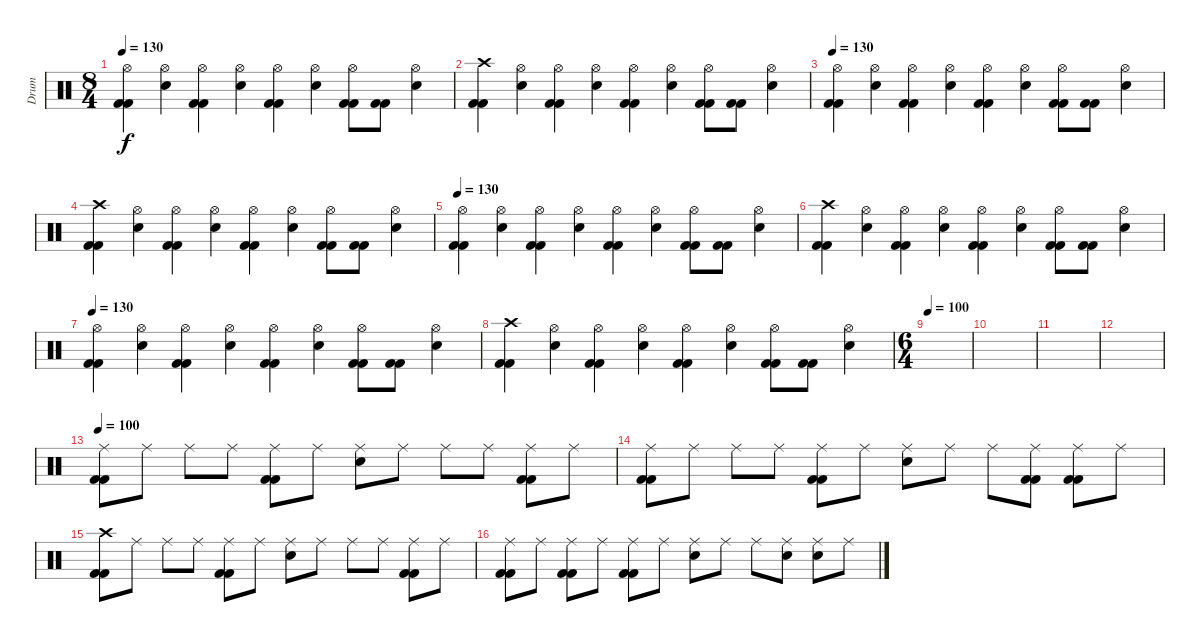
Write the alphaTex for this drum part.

\track ("Drum" "Drum") {instrument percussion}
\staff {score}
\articulation defaults
\ts (8 4)
\tempo 130
\clef neutral
\ks c
("Hi-Hat (open)" "Kick (hit) 2" "Kick (hit) 2").4{dy f} ("Hi-Hat (open)" "Electric Snare (hit)").4 ("Hi-Hat (open)" "Kick (hit) 2" "Kick (hit) 2").4 ("Hi-Hat (open)" "Electric Snare (hit)").4 ("Hi-Hat (open)" "Kick (hit) 2" "Kick (hit) 2").4 ("Hi-Hat (open)" "Electric Snare (hit)").4 ("Hi-Hat (open)" "Kick (hit) 2" "Kick (hit) 2").8 ("Kick (hit) 2" "Kick (hit) 2").8 ("Hi-Hat (open)" "Electric Snare (hit)").4 |
("Crash high (hit)" "Kick (hit) 2" "Kick (hit) 2").4 ("Hi-Hat (open)" "Electric Snare (hit)").4 ("Hi-Hat (open)" "Kick (hit) 2" "Kick (hit) 2").4 ("Hi-Hat (open)" "Electric Snare (hit)").4 ("Hi-Hat (open)" "Kick (hit) 2" "Kick (hit) 2").4 ("Hi-Hat (open)" "Electric Snare (hit)").4 ("Hi-Hat (open)" "Kick (hit) 2" "Kick (hit) 2").8 ("Kick (hit) 2" "Kick (hit) 2").8 ("Hi-Hat (open)" "Electric Snare (hit)").4 |
\tempo 130
("Hi-Hat (open)" "Kick (hit) 2" "Kick (hit) 2").4 ("Hi-Hat (open)" "Electric Snare (hit)").4 ("Hi-Hat (open)" "Kick (hit) 2" "Kick (hit) 2").4 ("Hi-Hat (open)" "Electric Snare (hit)").4 ("Hi-Hat (open)" "Kick (hit) 2" "Kick (hit) 2").4 ("Hi-Hat (open)" "Electric Snare (hit)").4 ("Hi-Hat (open)" "Kick (hit) 2" "Kick (hit) 2").8 ("Kick (hit) 2" "Kick (hit) 2").8 ("Hi-Hat (open)" "Electric Snare (hit)").4 |
("Crash high (hit)" "Kick (hit) 2" "Kick (hit) 2").4 ("Hi-Hat (open)" "Electric Snare (hit)").4 ("Hi-Hat (open)" "Kick (hit) 2" "Kick (hit) 2").4 ("Hi-Hat (open)" "Electric Snare (hit)").4 ("Hi-Hat (open)" "Kick (hit) 2" "Kick (hit) 2").4 ("Hi-Hat (open)" "Electric Snare (hit)").4 ("Hi-Hat (open)" "Kick (hit) 2" "Kick (hit) 2").8 ("Kick (hit) 2" "Kick (hit) 2").8 ("Hi-Hat (open)" "Electric Snare (hit)").4 |
\tempo 130
("Hi-Hat (open)" "Kick (hit) 2" "Kick (hit) 2").4 ("Hi-Hat (open)" "Electric Snare (hit)").4 ("Hi-Hat (open)" "Kick (hit) 2" "Kick (hit) 2").4 ("Hi-Hat (open)" "Electric Snare (hit)").4 ("Hi-Hat (open)" "Kick (hit) 2" "Kick (hit) 2").4 ("Hi-Hat (open)" "Electric Snare (hit)").4 ("Hi-Hat (open)" "Kick (hit) 2" "Kick (hit) 2").8 ("Kick (hit) 2" "Kick (hit) 2").8 ("Hi-Hat (open)" "Electric Snare (hit)").4 |
("Crash high (hit)" "Kick (hit) 2" "Kick (hit) 2").4 ("Hi-Hat (open)" "Electric Snare (hit)").4 ("Hi-Hat (open)" "Kick (hit) 2" "Kick (hit) 2").4 ("Hi-Hat (open)" "Electric Snare (hit)").4 ("Hi-Hat (open)" "Kick (hit) 2" "Kick (hit) 2").4 ("Hi-Hat (open)" "Electric Snare (hit)").4 ("Hi-Hat (open)" "Kick (hit) 2" "Kick (hit) 2").8 ("Kick (hit) 2" "Kick (hit) 2").8 ("Hi-Hat (open)" "Electric Snare (hit)").4 |
\tempo 130
("Hi-Hat (open)" "Kick (hit) 2" "Kick (hit) 2").4 ("Hi-Hat (open)" "Electric Snare (hit)").4 ("Hi-Hat (open)" "Kick (hit) 2" "Kick (hit) 2").4 ("Hi-Hat (open)" "Electric Snare (hit)").4 ("Hi-Hat (open)" "Kick (hit) 2" "Kick (hit) 2").4 ("Hi-Hat (open)" "Electric Snare (hit)").4 ("Hi-Hat (open)" "Kick (hit) 2" "Kick (hit) 2").8 ("Kick (hit) 2" "Kick (hit) 2").8 ("Hi-Hat (open)" "Electric Snare (hit)").4 |
("Crash high (hit)" "Kick (hit) 2" "Kick (hit) 2").4 ("Hi-Hat (open)" "Electric Snare (hit)").4 ("Hi-Hat (open)" "Kick (hit) 2" "Kick (hit) 2").4 ("Hi-Hat (open)" "Electric Snare (hit)").4 ("Hi-Hat (open)" "Kick (hit) 2" "Kick (hit) 2").4 ("Hi-Hat (open)" "Electric Snare (hit)").4 ("Hi-Hat (open)" "Kick (hit) 2" "Kick (hit) 2").8 ("Kick (hit) 2" "Kick (hit) 2").8 ("Hi-Hat (open)" "Electric Snare (hit)").4 |
\ts (6 4)
\tempo 100
|
|
|
|
\tempo 100
("Ride (middle)" "Kick (hit) 2" "Kick (hit) 2").8 "Ride (middle)".8 "Ride (middle)".8 "Ride (middle)".8 ("Ride (middle)" "Kick (hit) 2" "Kick (hit) 2").8 "Ride (middle)".8 ("Ride (middle)" "Electric Snare (hit)").8 "Ride (middle)".8 "Ride (middle)".8 "Ride (middle)".8 ("Ride (middle)" "Kick (hit) 2" "Kick (hit) 2").8 "Ride (middle)".8 |
("Ride (middle)" "Kick (hit) 2" "Kick (hit) 2").8 "Ride (middle)".8 "Ride (middle)".8 "Ride (middle)".8 ("Ride (middle)" "Kick (hit) 2" "Kick (hit) 2").8 "Ride (middle)".8 ("Ride (middle)" "Electric Snare (hit)").8 "Ride (middle)".8 "Ride (middle)".8 ("Ride (middle)" "Kick (hit) 2" "Kick (hit) 2").8 ("Ride (middle)" "Kick (hit) 2" "Kick (hit) 2").8 "Ride (middle)".8 |
("Crash high (hit)" "Kick (hit) 2" "Kick (hit) 2").8 "Ride (middle)".8 "Ride (middle)".8 "Ride (middle)".8 ("Ride (middle)" "Kick (hit) 2" "Kick (hit) 2").8 "Ride (middle)".8 ("Ride (middle)" "Electric Snare (hit)").8 "Ride (middle)".8 "Ride (middle)".8 "Ride (middle)".8 ("Ride (middle)" "Kick (hit) 2" "Kick (hit) 2").8 "Ride (middle)".8 |
("Ride (middle)" "Kick (hit) 2" "Kick (hit) 2").8 "Ride (middle)".8 ("Ride (middle)" "Kick (hit) 2" "Kick (hit) 2").8 "Ride (middle)".8 ("Ride (middle)" "Kick (hit) 2" "Kick (hit) 2").8 "Ride (middle)".8 ("Ride (middle)" "Electric Snare (hit)").8 "Ride (middle)".8 "Ride (middle)".8 ("Ride (middle)" "Electric Snare (hit)").8 ("Ride (middle)" "Electric Snare (hit)").8 "Ride (middle)".8
